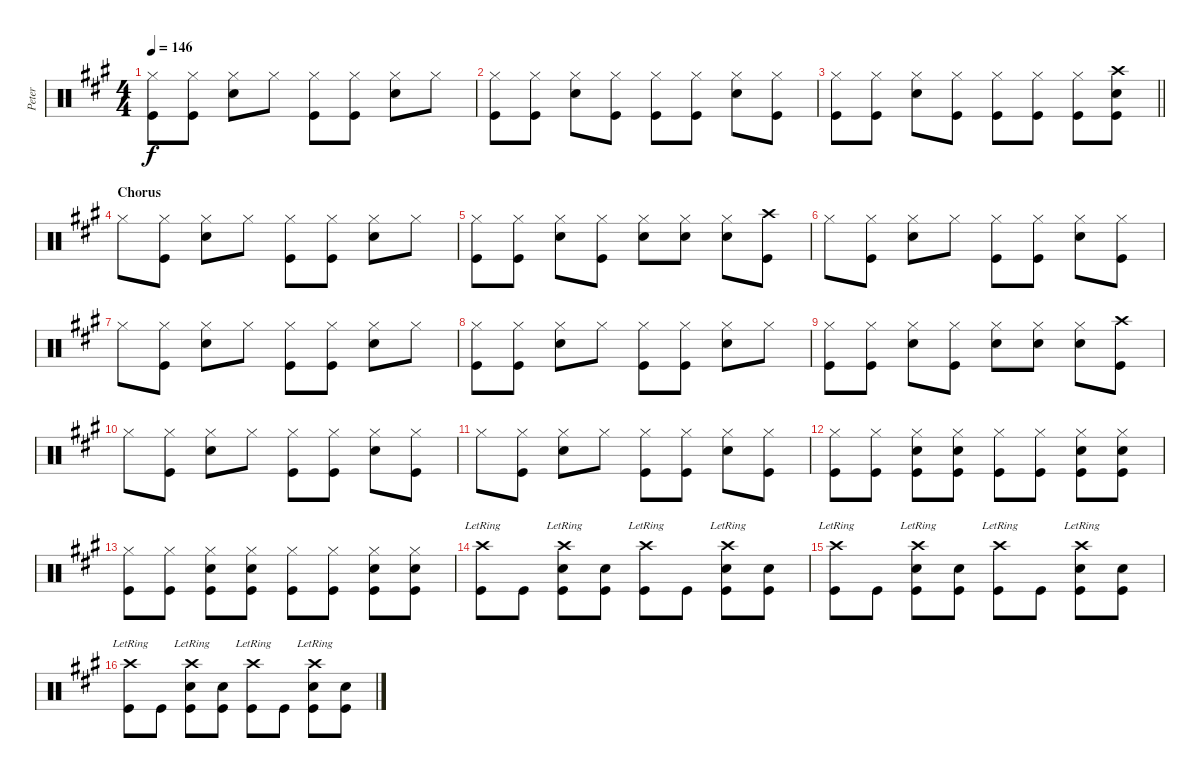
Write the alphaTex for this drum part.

\track ("Peter" "Peter") {instrument percussion}
\staff {score}
\articulation defaults
\ts (4 4)
\tempo 146
\clef neutral
\ks a
("Hi-Hat (closed)" "Kick (hit)").8{dy f} ("Hi-Hat (closed)" "Kick (hit)").8 ("Hi-Hat (closed)" "Snare (hit) 2").8 "Hi-Hat (closed)".8 ("Hi-Hat (closed)" "Kick (hit)").8 ("Hi-Hat (closed)" "Kick (hit)").8 ("Hi-Hat (closed)" "Snare (hit) 2").8 "Hi-Hat (closed)".8 |
("Hi-Hat (closed)" "Kick (hit)").8 ("Hi-Hat (closed)" "Kick (hit)").8 ("Hi-Hat (closed)" "Snare (hit) 2").8 ("Hi-Hat (closed)" "Kick (hit)").8 ("Hi-Hat (closed)" "Kick (hit)").8 ("Hi-Hat (closed)" "Kick (hit)").8 ("Hi-Hat (closed)" "Snare (hit) 2").8 ("Hi-Hat (closed)" "Kick (hit)").8 |
\barLineRight lightlight
("Hi-Hat (closed)" "Kick (hit)").8 ("Hi-Hat (closed)" "Kick (hit)").8 ("Hi-Hat (closed)" "Snare (hit) 2").8 ("Hi-Hat (closed)" "Kick (hit)").8 ("Hi-Hat (closed)" "Kick (hit)").8 ("Hi-Hat (closed)" "Kick (hit)").8 ("Hi-Hat (closed)" "Kick (hit)").8 ("Crash high (hit)" "Snare (hit) 2" "Kick (hit)").8 |
\section ("" "Chorus")
"Hi-Hat (closed)".8 ("Hi-Hat (closed)" "Kick (hit)").8 ("Hi-Hat (closed)" "Snare (hit) 2").8 "Hi-Hat (closed)".8 ("Hi-Hat (closed)" "Kick (hit)").8 ("Hi-Hat (closed)" "Kick (hit)").8 ("Hi-Hat (closed)" "Snare (hit) 2").8 "Hi-Hat (closed)".8 |
("Hi-Hat (closed)" "Kick (hit)").8 ("Hi-Hat (closed)" "Kick (hit)").8 ("Hi-Hat (closed)" "Snare (hit) 2").8 ("Hi-Hat (closed)" "Kick (hit)").8 ("Hi-Hat (closed)" "Snare (hit) 2").8 ("Hi-Hat (closed)" "Snare (hit) 2").8 ("Hi-Hat (closed)" "Snare (hit) 2").8 ("Crash high (hit)" "Kick (hit)").8 |
"Hi-Hat (closed)".8 ("Hi-Hat (closed)" "Kick (hit)").8 ("Hi-Hat (closed)" "Snare (hit) 2").8 "Hi-Hat (closed)".8 ("Hi-Hat (closed)" "Kick (hit)").8 ("Hi-Hat (closed)" "Kick (hit)").8 ("Hi-Hat (closed)" "Snare (hit) 2").8 ("Hi-Hat (closed)" "Kick (hit)").8 |
"Hi-Hat (closed)".8 ("Hi-Hat (closed)" "Kick (hit)").8 ("Hi-Hat (closed)" "Snare (hit) 2").8 "Hi-Hat (closed)".8 ("Hi-Hat (closed)" "Kick (hit)").8 ("Hi-Hat (closed)" "Kick (hit)").8 ("Hi-Hat (closed)" "Snare (hit) 2").8 "Hi-Hat (closed)".8 |
("Hi-Hat (closed)" "Kick (hit)").8 ("Hi-Hat (closed)" "Kick (hit)").8 ("Hi-Hat (closed)" "Snare (hit) 2").8 "Hi-Hat (closed)".8 ("Hi-Hat (closed)" "Kick (hit)").8 ("Hi-Hat (closed)" "Kick (hit)").8 ("Hi-Hat (closed)" "Snare (hit) 2").8 "Hi-Hat (closed)".8 |
("Hi-Hat (closed)" "Kick (hit)").8 ("Hi-Hat (closed)" "Kick (hit)").8 ("Hi-Hat (closed)" "Snare (hit) 2").8 ("Hi-Hat (closed)" "Kick (hit)").8 ("Hi-Hat (closed)" "Snare (hit) 2").8 ("Hi-Hat (closed)" "Snare (hit) 2").8 ("Hi-Hat (closed)" "Snare (hit) 2").8 ("Crash high (hit)" "Kick (hit)").8 |
"Hi-Hat (closed)".8 ("Hi-Hat (closed)" "Kick (hit)").8 ("Hi-Hat (closed)" "Snare (hit) 2").8 "Hi-Hat (closed)".8 ("Hi-Hat (closed)" "Kick (hit)").8 ("Hi-Hat (closed)" "Kick (hit)").8 ("Hi-Hat (closed)" "Snare (hit) 2").8 ("Hi-Hat (closed)" "Kick (hit)").8 |
"Hi-Hat (closed)".8 ("Hi-Hat (closed)" "Kick (hit)").8 ("Hi-Hat (closed)" "Snare (hit) 2").8 "Hi-Hat (closed)".8 ("Hi-Hat (closed)" "Kick (hit)").8 ("Hi-Hat (closed)" "Kick (hit)").8 ("Hi-Hat (closed)" "Snare (hit) 2").8 ("Hi-Hat (closed)" "Kick (hit)").8 |
("Hi-Hat (closed)" "Kick (hit)").8 ("Hi-Hat (closed)" "Kick (hit)").8 ("Hi-Hat (closed)" "Snare (hit) 2" "Kick (hit)").8 ("Hi-Hat (closed)" "Snare (hit) 2" "Kick (hit)").8 ("Hi-Hat (closed)" "Kick (hit)").8 ("Hi-Hat (closed)" "Kick (hit)").8 ("Hi-Hat (closed)" "Snare (hit) 2" "Kick (hit)").8 ("Hi-Hat (closed)" "Snare (hit) 2" "Kick (hit)").8 |
("Hi-Hat (closed)" "Kick (hit)").8 ("Hi-Hat (closed)" "Kick (hit)").8 ("Hi-Hat (closed)" "Snare (hit) 2" "Kick (hit)").8 ("Hi-Hat (closed)" "Snare (hit) 2" "Kick (hit)").8 ("Hi-Hat (closed)" "Kick (hit)").8 ("Hi-Hat (closed)" "Kick (hit)").8 ("Hi-Hat (closed)" "Snare (hit) 2" "Kick (hit)").8 ("Hi-Hat (closed)" "Snare (hit) 2" "Kick (hit)").8 |
("Crash high (hit)"{lr} "Kick (hit)").8 "Kick (hit)".8 ("Crash high (hit)"{lr} "Snare (hit) 2" "Kick (hit)").8 ("Snare (hit) 2" "Kick (hit)").8 ("Crash high (hit)"{lr} "Kick (hit)").8 "Kick (hit)".8 ("Crash high (hit)"{lr} "Snare (hit) 2" "Kick (hit)").8 ("Snare (hit) 2" "Kick (hit)").8 |
("Crash high (hit)"{lr} "Kick (hit)").8 "Kick (hit)".8 ("Crash high (hit)"{lr} "Snare (hit) 2" "Kick (hit)").8 ("Snare (hit) 2" "Kick (hit)").8 ("Crash high (hit)"{lr} "Kick (hit)").8 "Kick (hit)".8 ("Crash high (hit)"{lr} "Snare (hit) 2" "Kick (hit)").8 ("Snare (hit) 2" "Kick (hit)").8 |
("Crash high (hit)"{lr} "Kick (hit)").8 "Kick (hit)".8 ("Crash high (hit)"{lr} "Snare (hit) 2" "Kick (hit)").8 ("Snare (hit) 2" "Kick (hit)").8 ("Crash high (hit)"{lr} "Kick (hit)").8 "Kick (hit)".8 ("Crash high (hit)"{lr} "Snare (hit) 2" "Kick (hit)").8 ("Snare (hit) 2" "Kick (hit)").8
